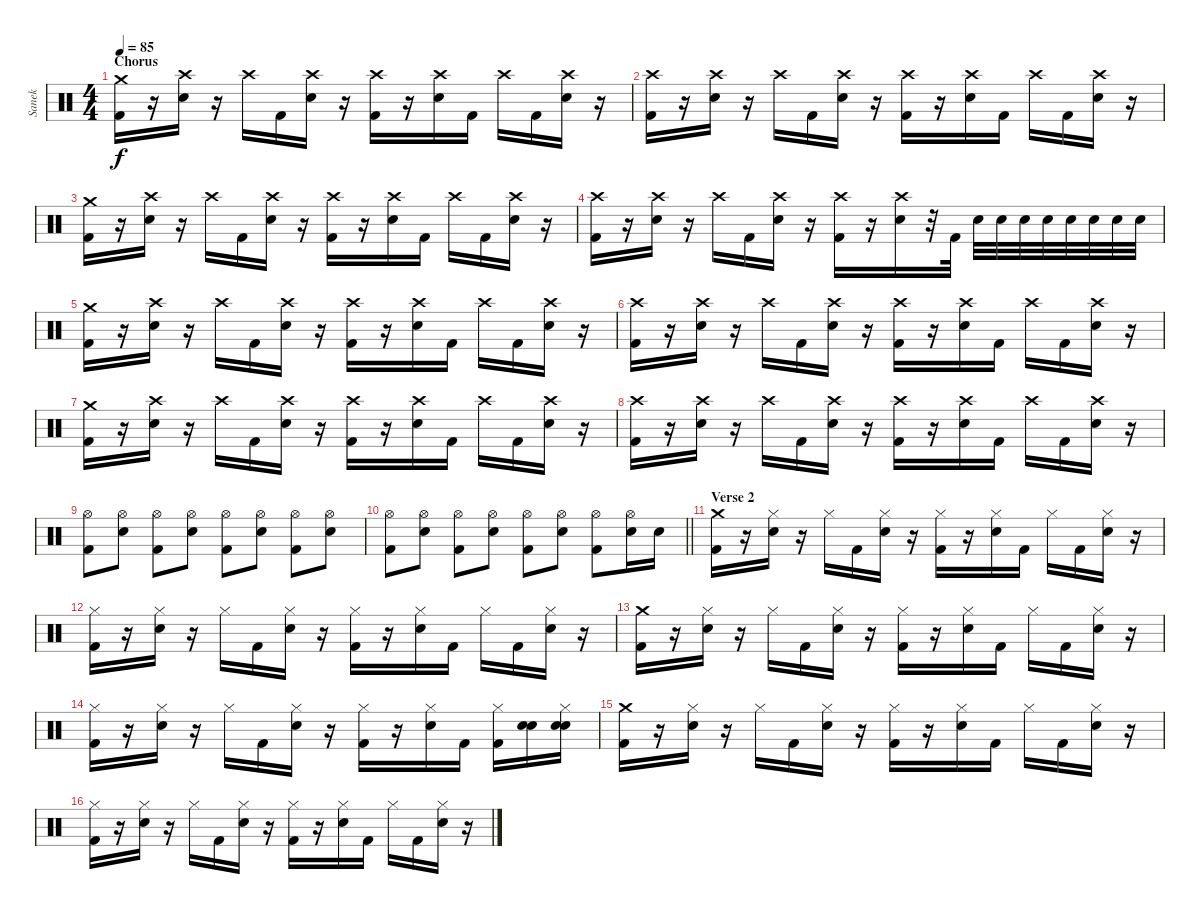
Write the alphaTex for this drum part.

\track ("Sanek" "Sanek") {instrument percussion}
\staff {score}
\articulation defaults
\ts (4 4)
\section ("" "Chorus")
\tempo 85
\clef neutral
\ks c
("Kick (hit) 2" "Crash medium (hit)").16{dy f} r.16 ("Electric Snare (hit)" "Crash high (hit)").16 r.16 "Crash high (hit)".16 "Kick (hit) 2".16 ("Electric Snare (hit)" "Crash high (hit)").16 r.16 ("Kick (hit) 2" "Crash high (hit)").16 r.16 ("Electric Snare (hit)" "Crash high (hit)").16 "Kick (hit) 2".16 "Crash high (hit)".16 "Kick (hit) 2".16 ("Electric Snare (hit)" "Crash high (hit)").16 r.16 |
("Kick (hit) 2" "Crash high (hit)").16 r.16 ("Electric Snare (hit)" "Crash high (hit)").16 r.16 "Crash high (hit)".16 "Kick (hit) 2".16 ("Electric Snare (hit)" "Crash high (hit)").16 r.16 ("Kick (hit) 2" "Crash high (hit)").16 r.16 ("Electric Snare (hit)" "Crash high (hit)").16 "Kick (hit) 2".16 "Crash high (hit)".16 "Kick (hit) 2".16 ("Electric Snare (hit)" "Crash high (hit)").16 r.16 |
("Kick (hit) 2" "Crash medium (hit)").16 r.16 ("Electric Snare (hit)" "Crash high (hit)").16 r.16 "Crash high (hit)".16 "Kick (hit) 2".16 ("Electric Snare (hit)" "Crash high (hit)").16 r.16 ("Kick (hit) 2" "Crash high (hit)").16 r.16 ("Electric Snare (hit)" "Crash high (hit)").16 "Kick (hit) 2".16 "Crash high (hit)".16 "Kick (hit) 2".16 ("Electric Snare (hit)" "Crash high (hit)").16 r.16 |
("Kick (hit) 2" "Crash high (hit)").16 r.16 ("Electric Snare (hit)" "Crash high (hit)").16 r.16 "Crash high (hit)".16 "Kick (hit) 2".16 ("Electric Snare (hit)" "Crash high (hit)").16 r.16 ("Kick (hit) 2" "Crash high (hit)").16 r.16 ("Electric Snare (hit)" "Crash high (hit)").16 r.32 "Kick (hit) 2".32 "Electric Snare (hit)".32 "Electric Snare (hit)".32 "Electric Snare (hit)".32 "Electric Snare (hit)".32 "Electric Snare (hit)".32 "Electric Snare (hit)".32 "Electric Snare (hit)".32 "Electric Snare (hit)".32 |
("Kick (hit) 2" "Crash medium (hit)").16 r.16 ("Electric Snare (hit)" "Crash high (hit)").16 r.16 "Crash high (hit)".16 "Kick (hit) 2".16 ("Electric Snare (hit)" "Crash high (hit)").16 r.16 ("Kick (hit) 2" "Crash high (hit)").16 r.16 ("Electric Snare (hit)" "Crash high (hit)").16 "Kick (hit) 2".16 "Crash high (hit)".16 "Kick (hit) 2".16 ("Electric Snare (hit)" "Crash high (hit)").16 r.16 |
("Kick (hit) 2" "Crash high (hit)").16 r.16 ("Electric Snare (hit)" "Crash high (hit)").16 r.16 "Crash high (hit)".16 "Kick (hit) 2".16 ("Electric Snare (hit)" "Crash high (hit)").16 r.16 ("Kick (hit) 2" "Crash high (hit)").16 r.16 ("Electric Snare (hit)" "Crash high (hit)").16 "Kick (hit) 2".16 "Crash high (hit)".16 "Kick (hit) 2".16 ("Electric Snare (hit)" "Crash high (hit)").16 r.16 |
("Kick (hit) 2" "Crash medium (hit)").16 r.16 ("Electric Snare (hit)" "Crash high (hit)").16 r.16 "Crash high (hit)".16 "Kick (hit) 2".16 ("Electric Snare (hit)" "Crash high (hit)").16 r.16 ("Kick (hit) 2" "Crash high (hit)").16 r.16 ("Electric Snare (hit)" "Crash high (hit)").16 "Kick (hit) 2".16 "Crash high (hit)".16 "Kick (hit) 2".16 ("Electric Snare (hit)" "Crash high (hit)").16 r.16 |
("Kick (hit) 2" "Crash high (hit)").16 r.16 ("Electric Snare (hit)" "Crash high (hit)").16 r.16 "Crash high (hit)".16 "Kick (hit) 2".16 ("Electric Snare (hit)" "Crash high (hit)").16 r.16 ("Kick (hit) 2" "Crash high (hit)").16 r.16 ("Electric Snare (hit)" "Crash high (hit)").16 "Kick (hit) 2".16 "Crash high (hit)".16 "Kick (hit) 2".16 ("Electric Snare (hit)" "Crash high (hit)").16 r.16 |
("Kick (hit) 2" "Hi-Hat (open)").8 ("Electric Snare (hit)" "Hi-Hat (open)").8 ("Kick (hit) 2" "Hi-Hat (open)").8 ("Electric Snare (hit)" "Hi-Hat (open)").8 ("Kick (hit) 2" "Hi-Hat (open)").8 ("Electric Snare (hit)" "Hi-Hat (open)").8 ("Kick (hit) 2" "Hi-Hat (open)").8 ("Electric Snare (hit)" "Hi-Hat (open)").8 |
\barLineRight lightlight
("Kick (hit) 2" "Hi-Hat (open)").8 ("Electric Snare (hit)" "Hi-Hat (open)").8 ("Kick (hit) 2" "Hi-Hat (open)").8 ("Electric Snare (hit)" "Hi-Hat (open)").8 ("Kick (hit) 2" "Hi-Hat (open)").8 ("Electric Snare (hit)" "Hi-Hat (open)").8 ("Kick (hit) 2" "Hi-Hat (open)").8 ("Electric Snare (hit)" "Hi-Hat (open)").16 "Electric Snare (hit)".16 |
\section ("" "Verse 2")
("Kick (hit) 2" "Crash medium (hit)").16 r.16 ("Electric Snare (hit)" "Hi-Hat (closed)").16 r.16 "Hi-Hat (closed)".16 "Kick (hit) 2".16 ("Electric Snare (hit)" "Hi-Hat (closed)").16 r.16 ("Kick (hit) 2" "Hi-Hat (closed)").16 r.16 ("Electric Snare (hit)" "Hi-Hat (closed)").16 "Kick (hit) 2".16 "Hi-Hat (closed)".16 "Kick (hit) 2".16 ("Electric Snare (hit)" "Hi-Hat (closed)").16 r.16 |
("Kick (hit) 2" "Hi-Hat (closed)").16 r.16 ("Electric Snare (hit)" "Hi-Hat (closed)").16 r.16 "Hi-Hat (closed)".16 "Kick (hit) 2".16 ("Electric Snare (hit)" "Hi-Hat (closed)").16 r.16 ("Kick (hit) 2" "Hi-Hat (closed)").16 r.16 ("Electric Snare (hit)" "Hi-Hat (closed)").16 "Kick (hit) 2".16 "Hi-Hat (closed)".16 "Kick (hit) 2".16 ("Electric Snare (hit)" "Hi-Hat (closed)").16 r.16 |
("Kick (hit) 2" "Crash medium (hit)").16 r.16 ("Electric Snare (hit)" "Hi-Hat (closed)").16 r.16 "Hi-Hat (closed)".16 "Kick (hit) 2".16 ("Electric Snare (hit)" "Hi-Hat (closed)").16 r.16 ("Kick (hit) 2" "Hi-Hat (closed)").16 r.16 ("Electric Snare (hit)" "Hi-Hat (closed)").16 "Kick (hit) 2".16 "Hi-Hat (closed)".16 "Kick (hit) 2".16 ("Electric Snare (hit)" "Hi-Hat (closed)").16 r.16 |
("Kick (hit) 2" "Hi-Hat (closed)").16 r.16 ("Electric Snare (hit)" "Hi-Hat (closed)").16 r.16 "Hi-Hat (closed)".16 "Kick (hit) 2".16 ("Electric Snare (hit)" "Hi-Hat (closed)").16 r.16 ("Kick (hit) 2" "Hi-Hat (closed)").16 r.16 ("Electric Snare (hit)" "Hi-Hat (closed)").16 "Kick (hit) 2".16 ("Kick (hit) 2" "Hi-Hat (closed)").16 ("Electric Snare (hit)" "Hand Clap (hit)").16 ("Electric Snare (hit)" "Hi-Hat (closed)" "Hand Clap (hit)").16 |
("Kick (hit) 2" "Crash medium (hit)").16 r.16 ("Electric Snare (hit)" "Hi-Hat (closed)").16 r.16 "Hi-Hat (closed)".16 "Kick (hit) 2".16 ("Electric Snare (hit)" "Hi-Hat (closed)").16 r.16 ("Kick (hit) 2" "Hi-Hat (closed)").16 r.16 ("Electric Snare (hit)" "Hi-Hat (closed)").16 "Kick (hit) 2".16 "Hi-Hat (closed)".16 "Kick (hit) 2".16 ("Electric Snare (hit)" "Hi-Hat (closed)").16 r.16 |
("Kick (hit) 2" "Hi-Hat (closed)").16 r.16 ("Electric Snare (hit)" "Hi-Hat (closed)").16 r.16 "Hi-Hat (closed)".16 "Kick (hit) 2".16 ("Electric Snare (hit)" "Hi-Hat (closed)").16 r.16 ("Kick (hit) 2" "Hi-Hat (closed)").16 r.16 ("Electric Snare (hit)" "Hi-Hat (closed)").16 "Kick (hit) 2".16 "Hi-Hat (closed)".16 "Kick (hit) 2".16 ("Electric Snare (hit)" "Hi-Hat (closed)").16 r.16
